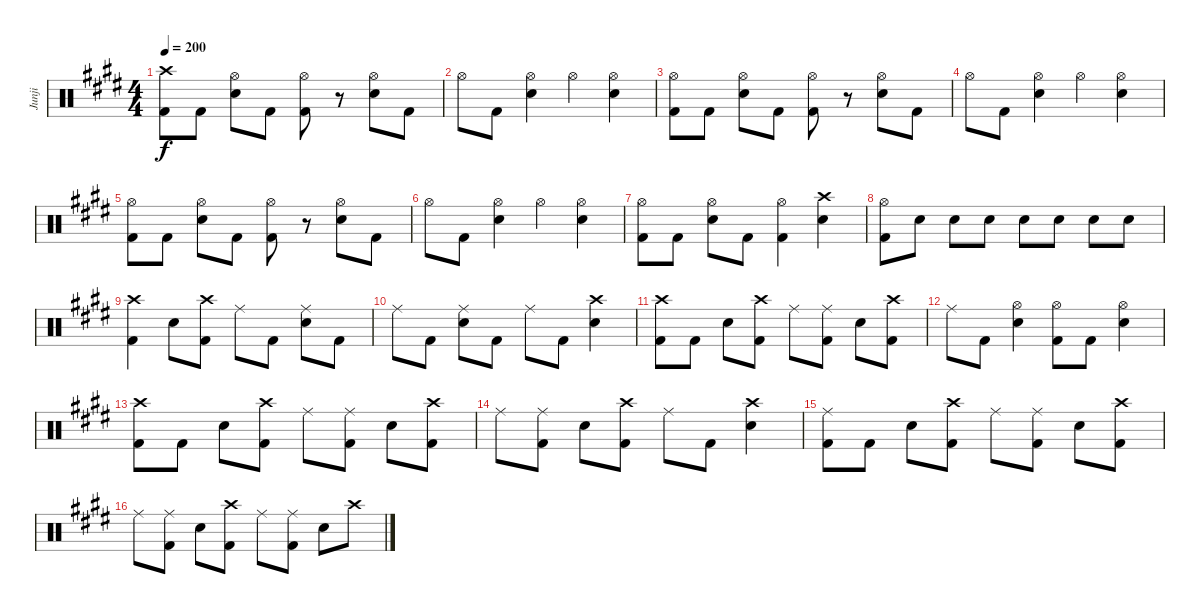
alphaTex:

\track ("Junji" "Junji") {instrument percussion}
\staff {score}
\articulation defaults
\ts (4 4)
\tempo 200
\clef neutral
\ks e
("Crash high (hit)" "Kick (hit) 2").8{dy f} "Kick (hit) 2".8 ("Hi-Hat (open)" "Snare (hit) 2").8 "Kick (hit) 2".8 ("Hi-Hat (open)" "Kick (hit) 2").8 r.8 ("Hi-Hat (open)" "Snare (hit) 2").8 "Kick (hit) 2".8 |
"Hi-Hat (open)".8 "Kick (hit) 2".8 ("Hi-Hat (open)" "Snare (hit) 2").4 "Hi-Hat (open)".4 ("Hi-Hat (open)" "Snare (hit) 2").4 |
("Hi-Hat (open)" "Kick (hit) 2").8 "Kick (hit) 2".8 ("Hi-Hat (open)" "Snare (hit) 2").8 "Kick (hit) 2".8 ("Hi-Hat (open)" "Kick (hit) 2").8 r.8 ("Hi-Hat (open)" "Snare (hit) 2").8 "Kick (hit) 2".8 |
"Hi-Hat (open)".8 "Kick (hit) 2".8 ("Hi-Hat (open)" "Snare (hit) 2").4 "Hi-Hat (open)".4 ("Hi-Hat (open)" "Snare (hit) 2").4 |
("Hi-Hat (open)" "Kick (hit) 2").8 "Kick (hit) 2".8 ("Hi-Hat (open)" "Snare (hit) 2").8 "Kick (hit) 2".8 ("Hi-Hat (open)" "Kick (hit) 2").8 r.8 ("Hi-Hat (open)" "Snare (hit) 2").8 "Kick (hit) 2".8 |
"Hi-Hat (open)".8 "Kick (hit) 2".8 ("Hi-Hat (open)" "Snare (hit) 2").4 "Hi-Hat (open)".4 ("Hi-Hat (open)" "Snare (hit) 2").4 |
("Hi-Hat (open)" "Kick (hit) 2").8 "Kick (hit) 2".8 ("Hi-Hat (open)" "Snare (hit) 2").8 "Kick (hit) 2".8 ("Hi-Hat (open)" "Kick (hit) 2").4 ("Crash high (hit)" "Snare (hit) 2").4 |
("Hi-Hat (open)" "Kick (hit) 2").8 "Snare (hit) 2".8 "Snare (hit) 2".8 "Snare (hit) 2".8 "Snare (hit) 2".8 "Snare (hit) 2".8 "Snare (hit) 2".8 "Snare (hit) 2".8 |
("Crash high (hit)" "Kick (hit) 2").4 "Snare (hit) 2".8 ("Crash high (hit)" "Kick (hit) 2").8 "Ride (middle)".8 "Kick (hit) 2".8 ("Ride (middle)" "Snare (hit) 2").8 "Kick (hit) 2".8 |
"Ride (middle)".8 "Kick (hit) 2".8 ("Ride (middle)" "Snare (hit) 2").8 "Kick (hit) 2".8 "Ride (middle)".8 "Kick (hit) 2".8 ("Crash high (hit)" "Snare (hit) 2").4 |
("Crash high (hit)" "Kick (hit) 2").8 "Kick (hit) 2".8 "Snare (hit) 2".8 ("Crash high (hit)" "Kick (hit) 2").8 "Ride (middle)".8 ("Ride (middle)" "Kick (hit) 2").8 "Snare (hit) 2".8 ("Crash high (hit)" "Kick (hit) 2").8 |
"Ride (middle)".8 "Kick (hit) 2".8 ("Hi-Hat (open)" "Snare (hit) 2").4 ("Hi-Hat (open)" "Kick (hit) 2").8 "Kick (hit) 2".8 ("Hi-Hat (open)" "Snare (hit) 2").4 |
("Crash high (hit)" "Kick (hit) 2").8 "Kick (hit) 2".8 "Snare (hit) 2".8 ("Crash high (hit)" "Kick (hit) 2").8 "Ride (middle)".8 ("Ride (middle)" "Kick (hit) 2").8 "Snare (hit) 2".8 ("Crash high (hit)" "Kick (hit) 2").8 |
"Ride (middle)".8 ("Ride (middle)" "Kick (hit) 2").8 "Snare (hit) 2".8 ("Crash high (hit)" "Kick (hit) 2").8 "Ride (middle)".8 "Kick (hit) 2".8 ("Crash high (hit)" "Snare (hit) 2").4 |
("Ride (middle)" "Kick (hit) 2").8 "Kick (hit) 2".8 "Snare (hit) 2".8 ("Crash high (hit)" "Kick (hit) 2").8 "Ride (middle)".8 ("Ride (middle)" "Kick (hit) 2").8 "Snare (hit) 2".8 ("Crash high (hit)" "Kick (hit) 2").8 |
"Ride (middle)".8 ("Ride (middle)" "Kick (hit) 2").8 "Snare (hit) 2".8 ("Crash high (hit)" "Kick (hit) 2").8 "Ride (middle)".8 ("Ride (middle)" "Kick (hit) 2").8 "Snare (hit) 2".8 "Crash high (hit)".8
